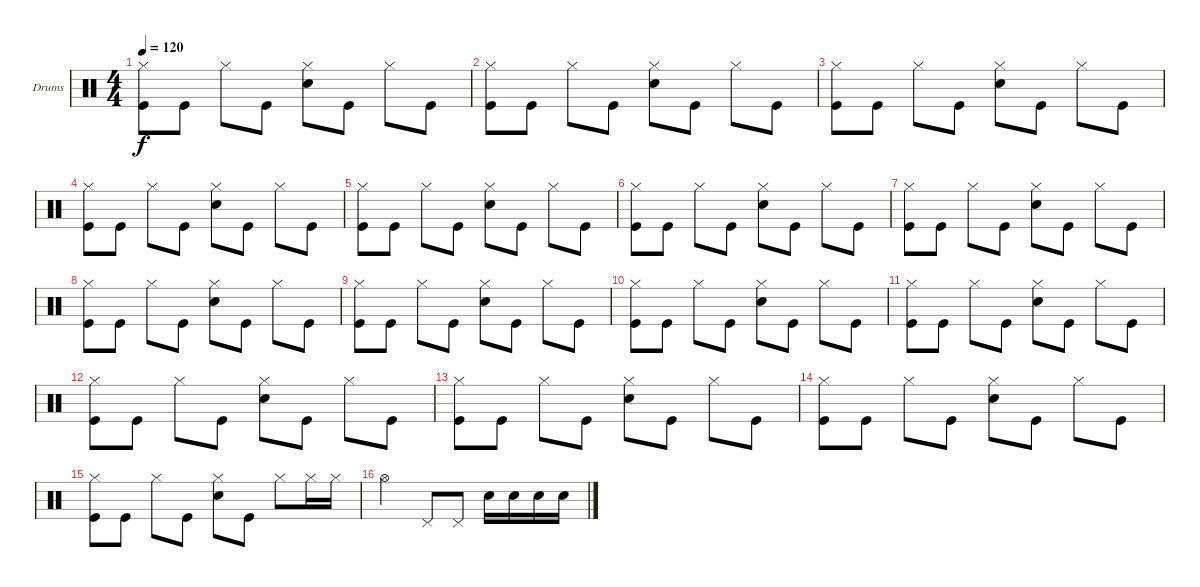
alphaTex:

\bracketExtendMode groupsimilarinstruments
\firstSystemTrackNameOrientation horizontal
\otherSystemsTrackNameOrientation horizontal
\track ("Drumkit" "Drums") {instrument percussion}
\staff {score}
\articulation defaults
\ts (4 4)
\tempo 120
\clef neutral
\ks c
("Hi-Hat (closed)" "Kick (hit)").8{dy f} "Kick (hit)".8 "Hi-Hat (closed)".8 "Kick (hit)".8 ("Hi-Hat (closed)" "Snare (hit) 2").8 "Kick (hit)".8 "Hi-Hat (closed)".8 "Kick (hit)".8 |
("Hi-Hat (closed)" "Kick (hit)").8 "Kick (hit)".8 "Hi-Hat (closed)".8 "Kick (hit)".8 ("Hi-Hat (closed)" "Snare (hit) 2").8 "Kick (hit)".8 "Hi-Hat (closed)".8 "Kick (hit)".8 |
("Hi-Hat (closed)" "Kick (hit)").8 "Kick (hit)".8 "Hi-Hat (closed)".8 "Kick (hit)".8 ("Hi-Hat (closed)" "Snare (hit) 2").8 "Kick (hit)".8 "Hi-Hat (closed)".8 "Kick (hit)".8 |
("Hi-Hat (closed)" "Kick (hit)").8 "Kick (hit)".8 "Hi-Hat (closed)".8 "Kick (hit)".8 ("Hi-Hat (closed)" "Snare (hit) 2").8 "Kick (hit)".8 "Hi-Hat (closed)".8 "Kick (hit)".8 |
("Hi-Hat (closed)" "Kick (hit)").8 "Kick (hit)".8 "Hi-Hat (closed)".8 "Kick (hit)".8 ("Hi-Hat (closed)" "Snare (hit) 2").8 "Kick (hit)".8 "Hi-Hat (closed)".8 "Kick (hit)".8 |
("Hi-Hat (closed)" "Kick (hit)").8 "Kick (hit)".8 "Hi-Hat (closed)".8 "Kick (hit)".8 ("Hi-Hat (closed)" "Snare (hit) 2").8 "Kick (hit)".8 "Hi-Hat (closed)".8 "Kick (hit)".8 |
("Hi-Hat (closed)" "Kick (hit)").8 "Kick (hit)".8 "Hi-Hat (closed)".8 "Kick (hit)".8 ("Hi-Hat (closed)" "Snare (hit) 2").8 "Kick (hit)".8 "Hi-Hat (closed)".8 "Kick (hit)".8 |
("Hi-Hat (closed)" "Kick (hit)").8 "Kick (hit)".8 "Hi-Hat (closed)".8 "Kick (hit)".8 ("Hi-Hat (closed)" "Snare (hit) 2").8 "Kick (hit)".8 "Hi-Hat (closed)".8 "Kick (hit)".8 |
("Hi-Hat (closed)" "Kick (hit)").8 "Kick (hit)".8 "Hi-Hat (closed)".8 "Kick (hit)".8 ("Hi-Hat (closed)" "Snare (hit) 2").8 "Kick (hit)".8 "Hi-Hat (closed)".8 "Kick (hit)".8 |
("Hi-Hat (closed)" "Kick (hit)").8 "Kick (hit)".8 "Hi-Hat (closed)".8 "Kick (hit)".8 ("Hi-Hat (closed)" "Snare (hit) 2").8 "Kick (hit)".8 "Hi-Hat (closed)".8 "Kick (hit)".8 |
("Hi-Hat (closed)" "Kick (hit)").8 "Kick (hit)".8 "Hi-Hat (closed)".8 "Kick (hit)".8 ("Hi-Hat (closed)" "Snare (hit) 2").8 "Kick (hit)".8 "Hi-Hat (closed)".8 "Kick (hit)".8 |
("Hi-Hat (closed)" "Kick (hit)").8 "Kick (hit)".8 "Hi-Hat (closed)".8 "Kick (hit)".8 ("Hi-Hat (closed)" "Snare (hit) 2").8 "Kick (hit)".8 "Hi-Hat (closed)".8 "Kick (hit)".8 |
("Hi-Hat (closed)" "Kick (hit)").8 "Kick (hit)".8 "Hi-Hat (closed)".8 "Kick (hit)".8 ("Hi-Hat (closed)" "Snare (hit) 2").8 "Kick (hit)".8 "Hi-Hat (closed)".8 "Kick (hit)".8 |
("Hi-Hat (closed)" "Kick (hit)").8 "Kick (hit)".8 "Hi-Hat (closed)".8 "Kick (hit)".8 ("Hi-Hat (closed)" "Snare (hit) 2").8 "Kick (hit)".8 "Hi-Hat (closed)".8 "Kick (hit)".8 |
("Hi-Hat (closed)" "Kick (hit)").8 "Kick (hit)".8 "Hi-Hat (closed)".8 "Kick (hit)".8 ("Hi-Hat (closed)" "Snare (hit) 2").8 "Kick (hit)".8 "Hi-Hat (closed)".8 "Hi-Hat (closed)".16 "Hi-Hat (closed)".16 |
"Hi-Hat (open)".2 "Pedal Hi-Hat (hit)".8 "Pedal Hi-Hat (hit)".8 "Snare (hit) 2".16 "Snare (hit) 2".16 "Snare (hit) 2".16 "Snare (hit) 2".16
